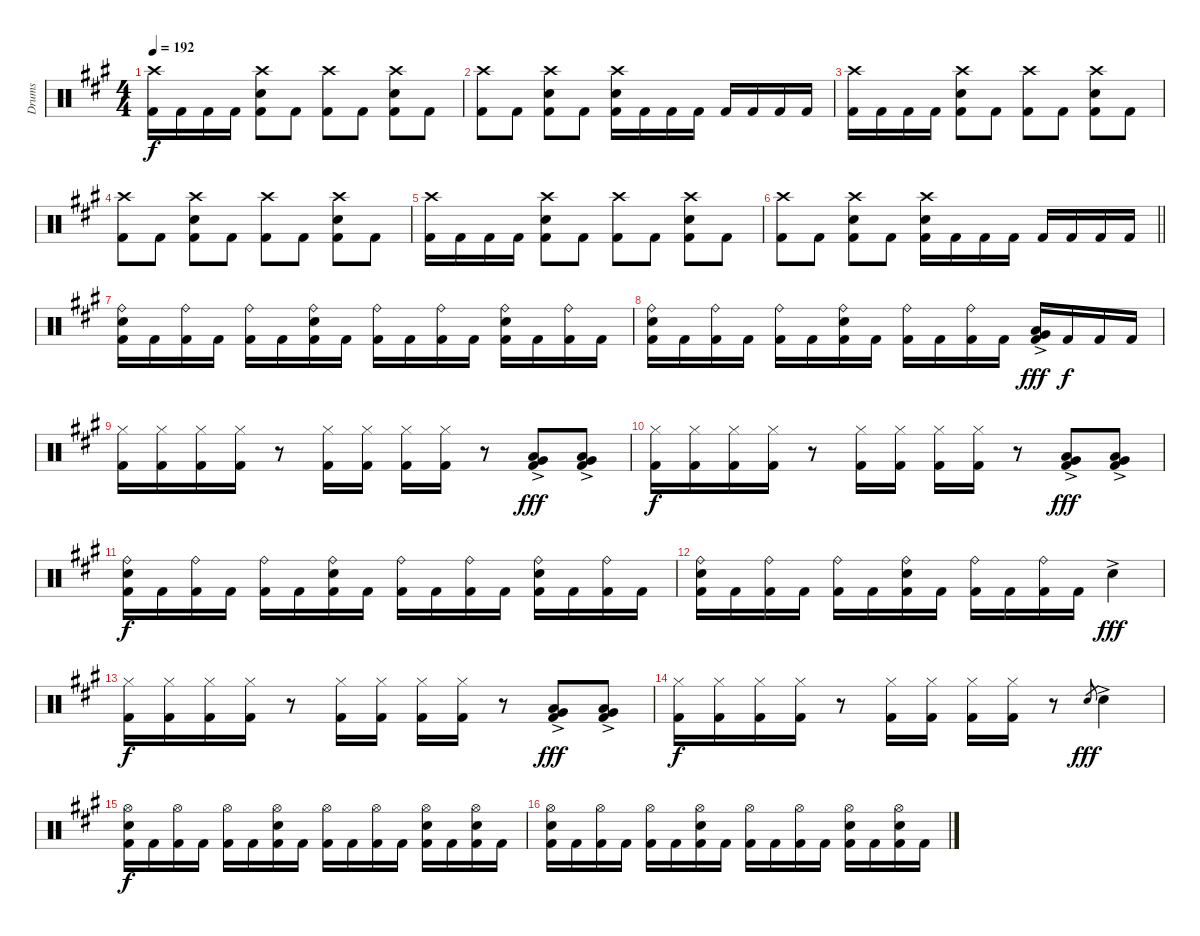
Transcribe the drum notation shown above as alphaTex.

\track ("Drums" "Drums") {instrument percussion}
\staff {score}
\articulation defaults
\ts (4 4)
\tempo 192
\clef neutral
\ks f#minor
("Crash high (hit)" "Kick (hit) 2").16{dy f} "Kick (hit) 2".16 "Kick (hit) 2".16 "Kick (hit) 2".16 ("Crash high (hit)" "Snare (hit) 2" "Kick (hit) 2").8 "Kick (hit) 2".8 ("Crash high (hit)" "Kick (hit) 2").8 "Kick (hit) 2".8 ("Crash high (hit)" "Snare (hit) 2" "Kick (hit) 2").8 "Kick (hit) 2".8 |
("Crash high (hit)" "Kick (hit) 2").8 "Kick (hit) 2".8 ("Crash high (hit)" "Snare (hit) 2" "Kick (hit) 2").8 "Kick (hit) 2".8 ("Crash high (hit)" "Snare (hit) 2" "Kick (hit) 2").16 "Kick (hit) 2".16 "Kick (hit) 2".16 "Kick (hit) 2".16 "Kick (hit) 2".16 "Kick (hit) 2".16 "Kick (hit) 2".16 "Kick (hit) 2".16 |
("Crash high (hit)" "Kick (hit) 2").16 "Kick (hit) 2".16 "Kick (hit) 2".16 "Kick (hit) 2".16 ("Crash high (hit)" "Snare (hit) 2" "Kick (hit) 2").8 "Kick (hit) 2".8 ("Crash high (hit)" "Kick (hit) 2").8 "Kick (hit) 2".8 ("Crash high (hit)" "Snare (hit) 2" "Kick (hit) 2").8 "Kick (hit) 2".8 |
("Crash high (hit)" "Kick (hit) 2").8 "Kick (hit) 2".8 ("Crash high (hit)" "Snare (hit) 2" "Kick (hit) 2").8 "Kick (hit) 2".8 ("Crash high (hit)" "Kick (hit) 2").8 "Kick (hit) 2".8 ("Crash high (hit)" "Snare (hit) 2" "Kick (hit) 2").8 "Kick (hit) 2".8 |
("Crash high (hit)" "Kick (hit) 2").16 "Kick (hit) 2".16 "Kick (hit) 2".16 "Kick (hit) 2".16 ("Crash high (hit)" "Snare (hit) 2" "Kick (hit) 2").8 "Kick (hit) 2".8 ("Crash high (hit)" "Kick (hit) 2").8 "Kick (hit) 2".8 ("Crash high (hit)" "Snare (hit) 2" "Kick (hit) 2").8 "Kick (hit) 2".8 |
\barLineRight lightlight
("Crash high (hit)" "Kick (hit) 2").8 "Kick (hit) 2".8 ("Crash high (hit)" "Snare (hit) 2" "Kick (hit) 2").8 "Kick (hit) 2".8 ("Crash high (hit)" "Snare (hit) 2" "Kick (hit) 2").16 "Kick (hit) 2".16 "Kick (hit) 2".16 "Kick (hit) 2".16 "Kick (hit) 2".16 "Kick (hit) 2".16 "Kick (hit) 2".16 "Kick (hit) 2".16 |
("Ride (bell)" "Snare (hit) 2" "Kick (hit) 2").16 "Kick (hit) 2".16 ("Ride (bell)" "Kick (hit) 2").16 "Kick (hit) 2".16 ("Ride (bell)" "Kick (hit) 2").16 "Kick (hit) 2".16 ("Ride (bell)" "Snare (hit) 2" "Kick (hit) 2").16 "Kick (hit) 2".16 ("Ride (bell)" "Kick (hit) 2").16 "Kick (hit) 2".16 ("Ride (bell)" "Kick (hit) 2").16 "Kick (hit) 2".16 ("Ride (bell)" "Snare (hit) 2" "Kick (hit) 2").16 "Kick (hit) 2".16 ("Ride (bell)" "Kick (hit) 2").16 "Kick (hit) 2".16 |
("Ride (bell)" "Snare (hit) 2" "Kick (hit) 2").16 "Kick (hit) 2".16 ("Ride (bell)" "Kick (hit) 2").16 "Kick (hit) 2".16 ("Ride (bell)" "Kick (hit) 2").16 "Kick (hit) 2".16 ("Ride (bell)" "Snare (hit) 2" "Kick (hit) 2").16 "Kick (hit) 2".16 ("Ride (bell)" "Kick (hit) 2").16 "Kick (hit) 2".16 ("Ride (bell)" "Kick (hit) 2").16 "Kick (hit) 2".16 ("Low Tom (hit)"{ac} "Very Low Tom (hit)"{ac} "Kick (hit) 2").16{dy fff} "Kick (hit) 2".16{dy f} "Kick (hit) 2".16 "Kick (hit) 2".16 |
("Hi-Hat (closed)" "Kick (hit) 2").16 ("Hi-Hat (closed)" "Kick (hit) 2").16 ("Hi-Hat (closed)" "Kick (hit) 2").16 ("Hi-Hat (closed)" "Kick (hit) 2").16 r.8 ("Hi-Hat (closed)" "Kick (hit) 2").16 ("Hi-Hat (closed)" "Kick (hit) 2").16 ("Hi-Hat (closed)" "Kick (hit) 2").16 ("Hi-Hat (closed)" "Kick (hit) 2").16 r.8 ("Low Tom (hit)"{ac} "Very Low Tom (hit)"{ac} "Kick (hit) 2").8{dy fff} ("Low Tom (hit)"{ac} "Very Low Tom (hit)"{ac} "Kick (hit) 2").8 |
("Hi-Hat (closed)" "Kick (hit) 2").16{dy f} ("Hi-Hat (closed)" "Kick (hit) 2").16 ("Hi-Hat (closed)" "Kick (hit) 2").16 ("Hi-Hat (closed)" "Kick (hit) 2").16 r.8 ("Hi-Hat (closed)" "Kick (hit) 2").16 ("Hi-Hat (closed)" "Kick (hit) 2").16 ("Hi-Hat (closed)" "Kick (hit) 2").16 ("Hi-Hat (closed)" "Kick (hit) 2").16 r.8 ("Low Tom (hit)"{ac} "Very Low Tom (hit)"{ac} "Kick (hit) 2").8{dy fff} ("Low Tom (hit)"{ac} "Very Low Tom (hit)"{ac} "Kick (hit) 2").8 |
("Ride (bell)" "Snare (hit) 2" "Kick (hit) 2").16{dy f} "Kick (hit) 2".16 ("Ride (bell)" "Kick (hit) 2").16 "Kick (hit) 2".16 ("Ride (bell)" "Kick (hit) 2").16 "Kick (hit) 2".16 ("Ride (bell)" "Snare (hit) 2" "Kick (hit) 2").16 "Kick (hit) 2".16 ("Ride (bell)" "Kick (hit) 2").16 "Kick (hit) 2".16 ("Ride (bell)" "Kick (hit) 2").16 "Kick (hit) 2".16 ("Ride (bell)" "Snare (hit) 2" "Kick (hit) 2").16 "Kick (hit) 2".16 ("Ride (bell)" "Kick (hit) 2").16 "Kick (hit) 2".16 |
("Ride (bell)" "Snare (hit) 2" "Kick (hit) 2").16 "Kick (hit) 2".16 ("Ride (bell)" "Kick (hit) 2").16 "Kick (hit) 2".16 ("Ride (bell)" "Kick (hit) 2").16 "Kick (hit) 2".16 ("Ride (bell)" "Snare (hit) 2" "Kick (hit) 2").16 "Kick (hit) 2".16 ("Ride (bell)" "Kick (hit) 2").16 "Kick (hit) 2".16 ("Ride (bell)" "Kick (hit) 2").16 "Kick (hit) 2".16 "Snare (hit) 2"{ac}.4{dy fff} |
("Hi-Hat (closed)" "Kick (hit) 2").16{dy f} ("Hi-Hat (closed)" "Kick (hit) 2").16 ("Hi-Hat (closed)" "Kick (hit) 2").16 ("Hi-Hat (closed)" "Kick (hit) 2").16 r.8 ("Hi-Hat (closed)" "Kick (hit) 2").16 ("Hi-Hat (closed)" "Kick (hit) 2").16 ("Hi-Hat (closed)" "Kick (hit) 2").16 ("Hi-Hat (closed)" "Kick (hit) 2").16 r.8 ("Low Tom (hit)"{ac} "Very Low Tom (hit)"{ac} "Kick (hit) 2").8{dy fff} ("Low Tom (hit)"{ac} "Very Low Tom (hit)"{ac} "Kick (hit) 2").8 |
("Hi-Hat (closed)" "Kick (hit) 2").16{dy f} ("Hi-Hat (closed)" "Kick (hit) 2").16 ("Hi-Hat (closed)" "Kick (hit) 2").16 ("Hi-Hat (closed)" "Kick (hit) 2").16 r.8 ("Hi-Hat (closed)" "Kick (hit) 2").16 ("Hi-Hat (closed)" "Kick (hit) 2").16 ("Hi-Hat (closed)" "Kick (hit) 2").16 ("Hi-Hat (closed)" "Kick (hit) 2").16 r.8 "Snare (hit) 2".8{gr dy fff} "Snare (hit) 2"{ac}.4 |
("Hi-Hat (open)" "Snare (hit) 2" "Kick (hit) 2").16{dy f} "Kick (hit) 2".16 ("Hi-Hat (open)" "Kick (hit) 2").16 "Kick (hit) 2".16 ("Hi-Hat (open)" "Kick (hit) 2").16 "Kick (hit) 2".16 ("Hi-Hat (open)" "Snare (hit) 2" "Kick (hit) 2").16 "Kick (hit) 2".16 ("Hi-Hat (open)" "Kick (hit) 2").16 "Kick (hit) 2".16 ("Hi-Hat (open)" "Kick (hit) 2").16 "Kick (hit) 2".16 ("Hi-Hat (open)" "Snare (hit) 2" "Kick (hit) 2").16 "Kick (hit) 2".16 ("Hi-Hat (open)" "Snare (hit) 2" "Kick (hit) 2").16 "Kick (hit) 2".16 |
("Hi-Hat (open)" "Snare (hit) 2" "Kick (hit) 2").16 "Kick (hit) 2".16 ("Hi-Hat (open)" "Kick (hit) 2").16 "Kick (hit) 2".16 ("Hi-Hat (open)" "Kick (hit) 2").16 "Kick (hit) 2".16 ("Hi-Hat (open)" "Snare (hit) 2" "Kick (hit) 2").16 "Kick (hit) 2".16 ("Hi-Hat (open)" "Kick (hit) 2").16 "Kick (hit) 2".16 ("Hi-Hat (open)" "Kick (hit) 2").16 "Kick (hit) 2".16 ("Hi-Hat (open)" "Snare (hit) 2" "Kick (hit) 2").16 "Kick (hit) 2".16 ("Hi-Hat (open)" "Snare (hit) 2" "Kick (hit) 2").16 "Kick (hit) 2".16
